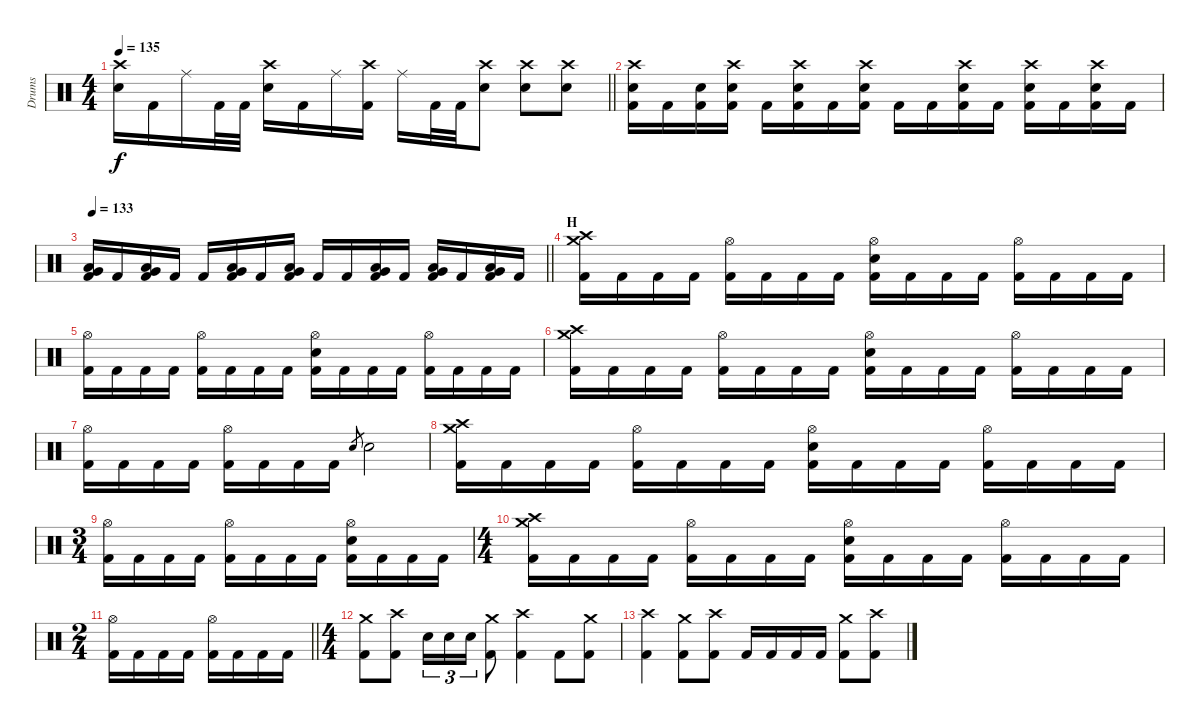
\track ("Drums" "Drums") {instrument percussion}
\staff {score}
\articulation defaults
\ts (4 4)
\tempo 135
\clef neutral
\barLineRight lightlight
\ks c
("Crash high (hit)" "Electric Snare (hit)").16{dy f} "Kick (hit) 2".16 "Ride (middle)".16 "Kick (hit) 2".32 "Kick (hit) 2".32 ("Crash high (hit)" "Electric Snare (hit)").16 "Kick (hit) 2".16 "Ride (middle)".16 ("Crash high (hit)" "Kick (hit) 2").16 "Ride (middle)".16 "Kick (hit) 2".32 "Kick (hit) 2".32 ("Crash high (hit)" "Electric Snare (hit)").8 ("Crash high (hit)" "Electric Snare (hit)").8 ("Crash high (hit)" "Electric Snare (hit)").8 |
\section ("" "")
("Crash high (hit)" "Electric Snare (hit)" "Kick (hit) 2").16 "Kick (hit) 2".16 ("Electric Snare (hit)" "Kick (hit) 2").16 ("Crash high (hit)" "Electric Snare (hit)" "Kick (hit) 2").16 "Kick (hit) 2".16 ("Crash high (hit)" "Electric Snare (hit)" "Kick (hit) 2").16 "Kick (hit) 2".16 ("Crash high (hit)" "Electric Snare (hit)" "Kick (hit) 2").16 "Kick (hit) 2".16 "Kick (hit) 2".16 ("Crash high (hit)" "Electric Snare (hit)" "Kick (hit) 2").16 "Kick (hit) 2".16 ("Crash high (hit)" "Electric Snare (hit)" "Kick (hit) 2").16 "Kick (hit) 2".16 ("Crash high (hit)" "Electric Snare (hit)" "Kick (hit) 2").16 "Kick (hit) 2".16 |
\tempo 133
\barLineRight lightlight
("Very Low Tom (hit)" "Low Floor Tom (hit)" "Kick (hit) 2").16 "Kick (hit) 2".16 ("Very Low Tom (hit)" "Low Floor Tom (hit)" "Kick (hit) 2").16 "Kick (hit) 2".16 "Kick (hit) 2".16 ("Very Low Tom (hit)" "Low Floor Tom (hit)" "Kick (hit) 2").16 "Kick (hit) 2".16 ("Very Low Tom (hit)" "Low Floor Tom (hit)" "Kick (hit) 2").16 "Kick (hit) 2".16 "Kick (hit) 2".16 ("Very Low Tom (hit)" "Low Floor Tom (hit)" "Kick (hit) 2").16 "Kick (hit) 2".16 ("Very Low Tom (hit)" "Low Floor Tom (hit)" "Kick (hit) 2").16 "Kick (hit) 2".16 ("Very Low Tom (hit)" "Low Floor Tom (hit)" "Kick (hit) 2").16 "Kick (hit) 2".16 |
\section ("" "H")
("Crash medium (hit)" "Crash high (hit)" "Kick (hit) 2").16 "Kick (hit) 2".16 "Kick (hit) 2".16 "Kick (hit) 2".16 ("Hi-Hat (open)" "Kick (hit) 2").16 "Kick (hit) 2".16 "Kick (hit) 2".16 "Kick (hit) 2".16 ("Hi-Hat (open)" "Electric Snare (hit)" "Kick (hit) 2").16 "Kick (hit) 2".16 "Kick (hit) 2".16 "Kick (hit) 2".16 ("Hi-Hat (open)" "Kick (hit) 2").16 "Kick (hit) 2".16 "Kick (hit) 2".16 "Kick (hit) 2".16 |
("Hi-Hat (open)" "Kick (hit) 2").16 "Kick (hit) 2".16 "Kick (hit) 2".16 "Kick (hit) 2".16 ("Hi-Hat (open)" "Kick (hit) 2").16 "Kick (hit) 2".16 "Kick (hit) 2".16 "Kick (hit) 2".16 ("Hi-Hat (open)" "Electric Snare (hit)" "Kick (hit) 2").16 "Kick (hit) 2".16 "Kick (hit) 2".16 "Kick (hit) 2".16 ("Hi-Hat (open)" "Kick (hit) 2").16 "Kick (hit) 2".16 "Kick (hit) 2".16 "Kick (hit) 2".16 |
("Crash medium (hit)" "Crash high (hit)" "Kick (hit) 2").16 "Kick (hit) 2".16 "Kick (hit) 2".16 "Kick (hit) 2".16 ("Hi-Hat (open)" "Kick (hit) 2").16 "Kick (hit) 2".16 "Kick (hit) 2".16 "Kick (hit) 2".16 ("Hi-Hat (open)" "Electric Snare (hit)" "Kick (hit) 2").16 "Kick (hit) 2".16 "Kick (hit) 2".16 "Kick (hit) 2".16 ("Hi-Hat (open)" "Kick (hit) 2").16 "Kick (hit) 2".16 "Kick (hit) 2".16 "Kick (hit) 2".16 |
("Hi-Hat (open)" "Kick (hit) 2").16 "Kick (hit) 2".16 "Kick (hit) 2".16 "Kick (hit) 2".16 ("Hi-Hat (open)" "Kick (hit) 2").16 "Kick (hit) 2".16 "Kick (hit) 2".16 "Kick (hit) 2".16 "Electric Snare (hit)".8{gr} "Electric Snare (hit)".2 |
("Crash medium (hit)" "Crash high (hit)" "Kick (hit) 2").16 "Kick (hit) 2".16 "Kick (hit) 2".16 "Kick (hit) 2".16 ("Hi-Hat (open)" "Kick (hit) 2").16 "Kick (hit) 2".16 "Kick (hit) 2".16 "Kick (hit) 2".16 ("Hi-Hat (open)" "Electric Snare (hit)" "Kick (hit) 2").16 "Kick (hit) 2".16 "Kick (hit) 2".16 "Kick (hit) 2".16 ("Hi-Hat (open)" "Kick (hit) 2").16 "Kick (hit) 2".16 "Kick (hit) 2".16 "Kick (hit) 2".16 |
\ts (3 4)
("Hi-Hat (open)" "Kick (hit) 2").16 "Kick (hit) 2".16 "Kick (hit) 2".16 "Kick (hit) 2".16 ("Hi-Hat (open)" "Kick (hit) 2").16 "Kick (hit) 2".16 "Kick (hit) 2".16 "Kick (hit) 2".16 ("Hi-Hat (open)" "Electric Snare (hit)" "Kick (hit) 2").16 "Kick (hit) 2".16 "Kick (hit) 2".16 "Kick (hit) 2".16 |
\ts (4 4)
("Crash medium (hit)" "Crash high (hit)" "Kick (hit) 2").16 "Kick (hit) 2".16 "Kick (hit) 2".16 "Kick (hit) 2".16 ("Hi-Hat (open)" "Kick (hit) 2").16 "Kick (hit) 2".16 "Kick (hit) 2".16 "Kick (hit) 2".16 ("Hi-Hat (open)" "Electric Snare (hit)" "Kick (hit) 2").16 "Kick (hit) 2".16 "Kick (hit) 2".16 "Kick (hit) 2".16 ("Hi-Hat (open)" "Kick (hit) 2").16 "Kick (hit) 2".16 "Kick (hit) 2".16 "Kick (hit) 2".16 |
\ts (2 4)
\barLineRight lightlight
("Hi-Hat (open)" "Kick (hit) 2").16 "Kick (hit) 2".16 "Kick (hit) 2".16 "Kick (hit) 2".16 ("Hi-Hat (open)" "Kick (hit) 2").16 "Kick (hit) 2".16 "Kick (hit) 2".16 "Kick (hit) 2".16 |
\ts (4 4)
\section ("" "")
("Crash medium (hit)" "Kick (hit) 2").8 ("Crash high (hit)" "Kick (hit) 2").8 "Electric Snare (hit)".16{tu (3 2)} "Electric Snare (hit)".16{tu (3 2)} "Electric Snare (hit)".16{tu (3 2)} ("Crash medium (hit)" "Kick (hit) 2").8 ("Crash high (hit)" "Kick (hit) 2").4 "Kick (hit) 2".8 ("Crash medium (hit)" "Kick (hit) 2").8 |
("Crash high (hit)" "Kick (hit) 2").4 ("Crash medium (hit)" "Kick (hit) 2").8 ("Crash high (hit)" "Kick (hit) 2").8 "Kick (hit) 2".16 "Kick (hit) 2".16 "Kick (hit) 2".16 "Kick (hit) 2".16 ("Crash medium (hit)" "Kick (hit) 2").8 ("Crash high (hit)" "Kick (hit) 2").8
